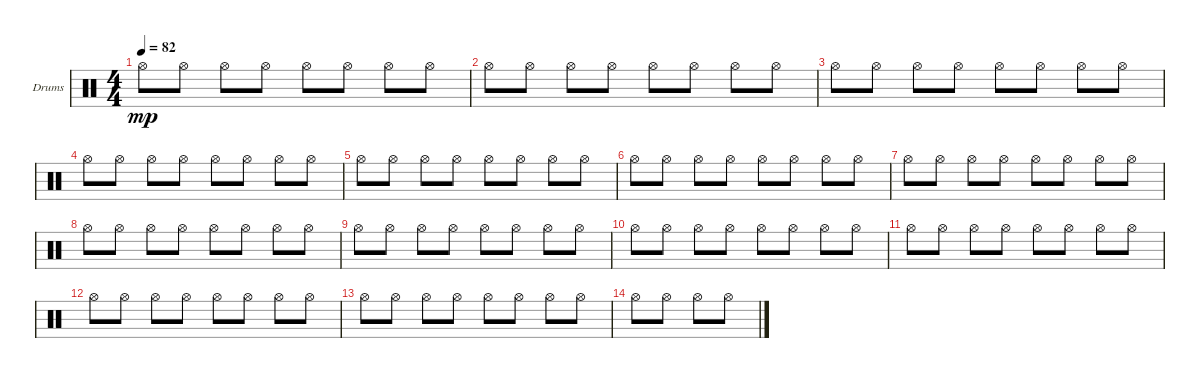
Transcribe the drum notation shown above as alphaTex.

\defaultSystemsLayout 4
\bracketExtendMode groupsimilarinstruments
\firstSystemTrackNameOrientation horizontal
\otherSystemsTrackNameOrientation horizontal
\track ("Drumkit" "Drums") {instrument percussion}
\staff {score}
\articulation defaults
\ts (4 4)
\tempo 82
\clef neutral
\ks c "Hi-Hat (open)".8{dy mp} "Hi-Hat (open)".8 "Hi-Hat (open)".8 "Hi-Hat (open)".8 "Hi-Hat (open)".8 "Hi-Hat (open)".8 "Hi-Hat (open)".8 "Hi-Hat (open)".8
|
"Hi-Hat (open)".8 "Hi-Hat (open)".8 "Hi-Hat (open)".8 "Hi-Hat (open)".8 "Hi-Hat (open)".8 "Hi-Hat (open)".8 "Hi-Hat (open)".8 "Hi-Hat (open)".8 |
"Hi-Hat (open)".8 "Hi-Hat (open)".8 "Hi-Hat (open)".8 "Hi-Hat (open)".8 "Hi-Hat (open)".8 "Hi-Hat (open)".8 "Hi-Hat (open)".8 "Hi-Hat (open)".8 |
"Hi-Hat (open)".8 "Hi-Hat (open)".8 "Hi-Hat (open)".8 "Hi-Hat (open)".8 "Hi-Hat (open)".8 "Hi-Hat (open)".8 "Hi-Hat (open)".8 "Hi-Hat (open)".8 |
"Hi-Hat (open)".8 "Hi-Hat (open)".8 "Hi-Hat (open)".8 "Hi-Hat (open)".8 "Hi-Hat (open)".8 "Hi-Hat (open)".8 "Hi-Hat (open)".8 "Hi-Hat (open)".8 |
"Hi-Hat (open)".8 "Hi-Hat (open)".8 "Hi-Hat (open)".8 "Hi-Hat (open)".8 "Hi-Hat (open)".8 "Hi-Hat (open)".8 "Hi-Hat (open)".8 "Hi-Hat (open)".8 |
"Hi-Hat (open)".8 "Hi-Hat (open)".8 "Hi-Hat (open)".8 "Hi-Hat (open)".8 "Hi-Hat (open)".8 "Hi-Hat (open)".8 "Hi-Hat (open)".8 "Hi-Hat (open)".8 |
"Hi-Hat (open)".8 "Hi-Hat (open)".8 "Hi-Hat (open)".8 "Hi-Hat (open)".8 "Hi-Hat (open)".8 "Hi-Hat (open)".8 "Hi-Hat (open)".8 "Hi-Hat (open)".8 |
"Hi-Hat (open)".8 "Hi-Hat (open)".8 "Hi-Hat (open)".8 "Hi-Hat (open)".8 "Hi-Hat (open)".8 "Hi-Hat (open)".8 "Hi-Hat (open)".8 "Hi-Hat (open)".8 |
"Hi-Hat (open)".8 "Hi-Hat (open)".8 "Hi-Hat (open)".8 "Hi-Hat (open)".8 "Hi-Hat (open)".8 "Hi-Hat (open)".8 "Hi-Hat (open)".8 "Hi-Hat (open)".8 |
"Hi-Hat (open)".8 "Hi-Hat (open)".8 "Hi-Hat (open)".8 "Hi-Hat (open)".8 "Hi-Hat (open)".8 "Hi-Hat (open)".8 "Hi-Hat (open)".8 "Hi-Hat (open)".8 |
"Hi-Hat (open)".8 "Hi-Hat (open)".8 "Hi-Hat (open)".8 "Hi-Hat (open)".8 "Hi-Hat (open)".8 "Hi-Hat (open)".8 "Hi-Hat (open)".8 "Hi-Hat (open)".8 |
"Hi-Hat (open)".8 "Hi-Hat (open)".8 "Hi-Hat (open)".8 "Hi-Hat (open)".8 "Hi-Hat (open)".8 "Hi-Hat (open)".8 "Hi-Hat (open)".8 "Hi-Hat (open)".8 |
"Hi-Hat (open)".8 "Hi-Hat (open)".8 "Hi-Hat (open)".8 "Hi-Hat (open)".8
